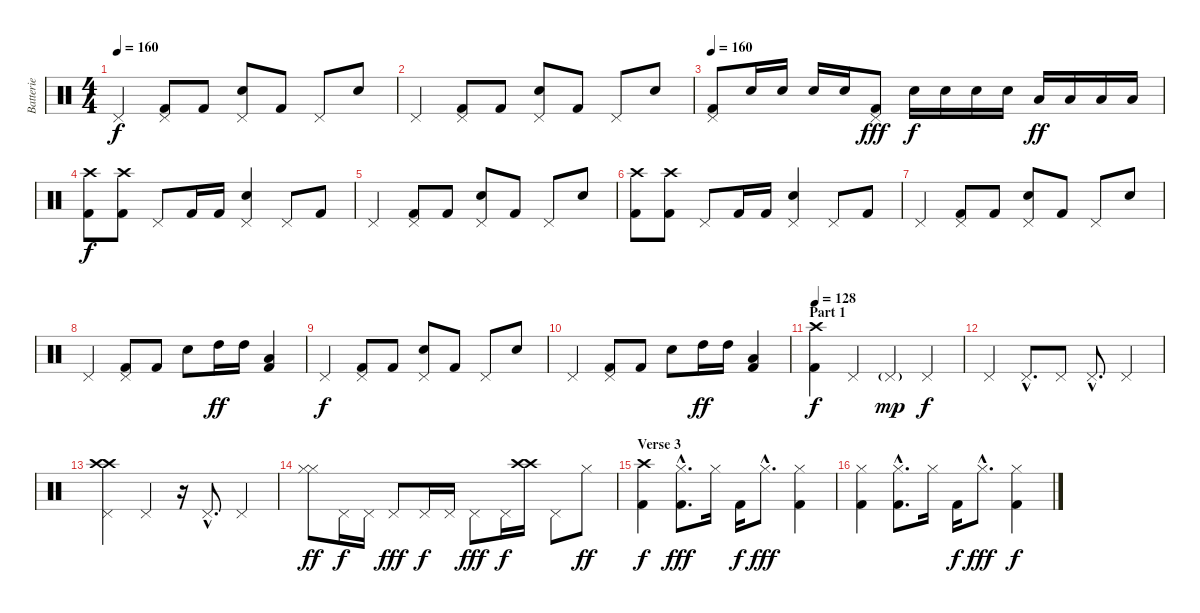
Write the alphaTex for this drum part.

\track ("Batterie" "Batterie") {instrument percussion}
\staff {score}
\articulation defaults
\ts (4 4)
\tempo 160
\clef neutral
\ks c "Pedal Hi-Hat (hit)".4{dy f}
("Pedal Hi-Hat (hit)" "Kick (hit) 2").8 "Kick (hit) 2".8 ("Pedal Hi-Hat (hit)" "Electric Snare (hit)").8 "Kick (hit) 2".8 "Pedal Hi-Hat (hit)".8 "Electric Snare (hit)".8 |
"Pedal Hi-Hat (hit)".4 ("Pedal Hi-Hat (hit)" "Kick (hit) 2").8 "Kick (hit) 2".8 ("Pedal Hi-Hat (hit)" "Electric Snare (hit)").8 "Kick (hit) 2".8 "Pedal Hi-Hat (hit)".8 "Electric Snare (hit)".8 |
\tempo 160
("Pedal Hi-Hat (hit)" "Kick (hit) 2").8 "Electric Snare (hit)".16 "Electric Snare (hit)".16 "Electric Snare (hit)".16 "Electric Snare (hit)".16 ("Pedal Hi-Hat (hit)" "Kick (hit) 2").8{dy fff} "Electric Snare (hit)".16{dy f} "Electric Snare (hit)".16 "Electric Snare (hit)".16 "Electric Snare (hit)".16 "Low Floor Tom (hit)".16{dy ff} "Low Floor Tom (hit)".16 "Low Floor Tom (hit)".16 "Low Floor Tom (hit)".16 |
("Crash high (hit)" "Kick (hit) 2").8{dy f} ("Crash high (hit)" "Kick (hit) 2").8 "Pedal Hi-Hat (hit)".8 "Kick (hit) 2".16 "Kick (hit) 2".16 ("Pedal Hi-Hat (hit)" "Electric Snare (hit)").4 "Pedal Hi-Hat (hit)".8 "Kick (hit) 2".8 |
"Pedal Hi-Hat (hit)".4 ("Pedal Hi-Hat (hit)" "Kick (hit) 2").8 "Kick (hit) 2".8 ("Pedal Hi-Hat (hit)" "Electric Snare (hit)").8 "Kick (hit) 2".8 "Pedal Hi-Hat (hit)".8 "Electric Snare (hit)".8 |
("Crash high (hit)" "Kick (hit) 2").8 ("Crash high (hit)" "Kick (hit) 2").8 "Pedal Hi-Hat (hit)".8 "Kick (hit) 2".16 "Kick (hit) 2".16 ("Pedal Hi-Hat (hit)" "Electric Snare (hit)").4 "Pedal Hi-Hat (hit)".8 "Kick (hit) 2".8 |
"Pedal Hi-Hat (hit)".4 ("Pedal Hi-Hat (hit)" "Kick (hit) 2").8 "Kick (hit) 2".8 ("Pedal Hi-Hat (hit)" "Electric Snare (hit)").8 "Kick (hit) 2".8 "Pedal Hi-Hat (hit)".8 "Electric Snare (hit)".8 |
"Pedal Hi-Hat (hit)".4 ("Pedal Hi-Hat (hit)" "Kick (hit) 2").8 "Kick (hit) 2".8 "Electric Snare (hit)".8 "High Tom (hit)".16{dy ff} "High Tom (hit)".16 ("Low Tom (hit)" "Kick (hit) 2").4 |
"Pedal Hi-Hat (hit)".4{dy f} ("Pedal Hi-Hat (hit)" "Kick (hit) 2").8 "Kick (hit) 2".8 ("Pedal Hi-Hat (hit)" "Electric Snare (hit)").8 "Kick (hit) 2".8 "Pedal Hi-Hat (hit)".8 "Electric Snare (hit)".8 |
"Pedal Hi-Hat (hit)".4 ("Pedal Hi-Hat (hit)" "Kick (hit) 2").8 "Kick (hit) 2".8 "Electric Snare (hit)".8 "High Tom (hit)".16{dy ff} "High Tom (hit)".16 ("Low Tom (hit)" "Kick (hit) 2").4 |
\section ("" "Part 1")
\tempo 128
("Crash high (hit)" "Kick (hit) 2").4{dy f} "Pedal Hi-Hat (hit)".4 "Pedal Hi-Hat (hit)"{g}.4{dy mp} "Pedal Hi-Hat (hit)".4{dy f} |
"Pedal Hi-Hat (hit)".4 "Pedal Hi-Hat (hit)"{hac}.8{d} "Pedal Hi-Hat (hit)".8 "Pedal Hi-Hat (hit)"{hac}.8{d} "Pedal Hi-Hat (hit)".4 |
("Crash high (hit)" "Crash high (hit)" "Pedal Hi-Hat (hit)").4 "Pedal Hi-Hat (hit)".4 r.16 "Pedal Hi-Hat (hit)"{hac}.8{d} "Pedal Hi-Hat (hit)".4 |
("Hi-Hat (closed)" "Hi-Hat (closed)").8{dy ff} "Pedal Hi-Hat (hit)".16{dy f} "Pedal Hi-Hat (hit)".16 "Pedal Hi-Hat (hit)".8{dy fff} "Pedal Hi-Hat (hit)".16{dy f} "Pedal Hi-Hat (hit)".16 "Pedal Hi-Hat (hit)".8{dy fff} "Pedal Hi-Hat (hit)".16{dy f} ("Crash high (hit)" "Crash high (hit)").16 "Pedal Hi-Hat (hit)".8 "Hi-Hat (closed)".8{dy ff} |
\section ("" "Verse 3")
("Crash high (hit)" "Kick (hit) 2").4{dy f} ("Hi-Hat (closed)"{hac} "Kick (hit) 2"{hac}).8{d dy fff} "Hi-Hat (closed)".16 "Kick (hit) 2".16{dy f} "Hi-Hat (closed)"{hac}.8{d dy fff} ("Hi-Hat (closed)" "Kick (hit) 2").4 |
("Hi-Hat (closed)" "Kick (hit) 2").4 ("Hi-Hat (closed)"{hac} "Kick (hit) 2"{hac}).8{d} "Hi-Hat (closed)".16 "Kick (hit) 2".16{dy f} "Hi-Hat (closed)"{hac}.8{d dy fff} ("Hi-Hat (closed)" "Kick (hit) 2").4{dy f}
